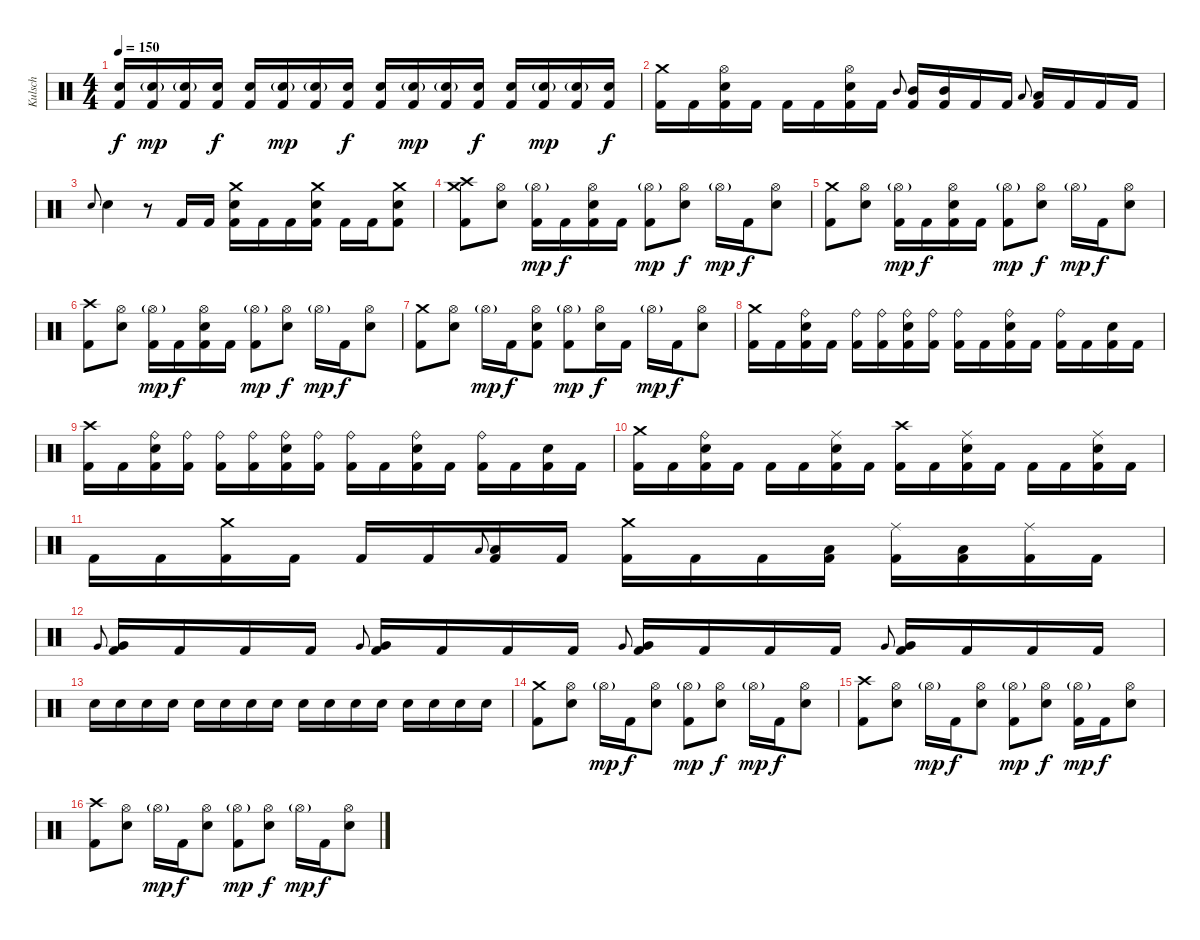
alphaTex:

\track ("Kulsch" "Kulsch") {instrument percussion}
\staff {score}
\articulation defaults
\ts (4 4)
\tempo 150
\clef neutral
\ks c
("Snare (hit) 2" "Kick (hit) 2").16{dy f} ("Snare (hit) 2"{g} "Kick (hit) 2").16{dy mp} ("Snare (hit) 2"{g} "Kick (hit) 2").16 ("Snare (hit) 2" "Kick (hit) 2").16{dy f} ("Snare (hit) 2" "Kick (hit) 2").16 ("Snare (hit) 2"{g} "Kick (hit) 2").16{dy mp} ("Snare (hit) 2"{g} "Kick (hit) 2").16 ("Snare (hit) 2" "Kick (hit) 2").16{dy f} ("Snare (hit) 2" "Kick (hit) 2").16 ("Snare (hit) 2"{g} "Kick (hit) 2").16{dy mp} ("Snare (hit) 2"{g} "Kick (hit) 2").16 ("Snare (hit) 2" "Kick (hit) 2").16{dy f} ("Snare (hit) 2" "Kick (hit) 2").16 ("Snare (hit) 2"{g} "Kick (hit) 2").16{dy mp} ("Snare (hit) 2"{g} "Kick (hit) 2").16 ("Snare (hit) 2" "Kick (hit) 2").16{dy f} |
("Crash medium (hit)" "Kick (hit) 2").16 "Kick (hit) 2".16 ("Hi-Hat (open)" "Snare (hit) 2" "Kick (hit) 2").16 "Kick (hit) 2".16 "Kick (hit) 2".16 "Kick (hit) 2".16 ("Hi-Hat (open)" "Snare (hit) 2" "Kick (hit) 2").16 "Kick (hit) 2".16 "Mid Tom (hit)".8{gr onbeat} ("Mid Tom (hit)" "Kick (hit) 2").16 ("Mid Tom (hit)" "Kick (hit) 2").16 "Kick (hit) 2".16 "Kick (hit) 2".16 "Low Tom (hit)".8{gr onbeat} ("Low Tom (hit)" "Kick (hit) 2").16 "Kick (hit) 2".16 "Kick (hit) 2".16 "Kick (hit) 2".16 |
"Snare (hit) 2".8{gr onbeat} "Snare (hit) 2".4 r.8 "Kick (hit) 2".16 "Kick (hit) 2".16 ("Crash medium (hit)" "Snare (hit) 2" "Kick (hit) 2").16 "Kick (hit) 2".16 "Kick (hit) 2".16 ("Crash medium (hit)" "Snare (hit) 2" "Kick (hit) 2").16 "Kick (hit) 2".16 "Kick (hit) 2".16 ("Crash medium (hit)" "Snare (hit) 2" "Kick (hit) 2").8 |
("Crash medium (hit)" "Crash high (hit)" "Kick (hit) 2").8 ("Hi-Hat (open)" "Snare (hit) 2").8 ("Hi-Hat (open)"{g} "Kick (hit) 2").16{dy mp} "Kick (hit) 2".16{dy f} ("Hi-Hat (open)" "Snare (hit) 2" "Kick (hit) 2").16 "Kick (hit) 2".16 ("Hi-Hat (open)"{g} "Kick (hit) 2").8{dy mp} ("Hi-Hat (open)" "Snare (hit) 2").8{dy f} "Hi-Hat (open)"{g}.16{dy mp} "Kick (hit) 2".16{dy f} ("Hi-Hat (open)" "Snare (hit) 2").8 |
("Crash medium (hit)" "Kick (hit) 2").8 ("Hi-Hat (open)" "Snare (hit) 2").8 ("Hi-Hat (open)"{g} "Kick (hit) 2").16{dy mp} "Kick (hit) 2".16{dy f} ("Hi-Hat (open)" "Snare (hit) 2" "Kick (hit) 2").16 "Kick (hit) 2".16 ("Hi-Hat (open)"{g} "Kick (hit) 2").8{dy mp} ("Hi-Hat (open)" "Snare (hit) 2").8{dy f} "Hi-Hat (open)"{g}.16{dy mp} "Kick (hit) 2".16{dy f} ("Hi-Hat (open)" "Snare (hit) 2").8 |
("Crash high (hit)" "Kick (hit) 2").8 ("Hi-Hat (open)" "Snare (hit) 2").8 ("Hi-Hat (open)"{g} "Kick (hit) 2").16{dy mp} "Kick (hit) 2".16{dy f} ("Hi-Hat (open)" "Snare (hit) 2" "Kick (hit) 2").16 "Kick (hit) 2".16 ("Hi-Hat (open)"{g} "Kick (hit) 2").8{dy mp} ("Hi-Hat (open)" "Snare (hit) 2").8{dy f} "Hi-Hat (open)"{g}.16{dy mp} "Kick (hit) 2".16{dy f} ("Hi-Hat (open)" "Snare (hit) 2").8 |
("Crash medium (hit)" "Kick (hit) 2").8 ("Hi-Hat (open)" "Snare (hit) 2").8 "Hi-Hat (open)"{g}.16{dy mp} "Kick (hit) 2".16{dy f} ("Hi-Hat (open)" "Snare (hit) 2" "Kick (hit) 2").8 ("Hi-Hat (open)"{g} "Kick (hit) 2").8{dy mp} ("Hi-Hat (open)" "Snare (hit) 2").16{dy f} "Kick (hit) 2".16 "Hi-Hat (open)"{g}.16{dy mp} "Kick (hit) 2".16{dy f} ("Hi-Hat (open)" "Snare (hit) 2").8 |
("Crash medium (hit)" "Kick (hit) 2").16 "Kick (hit) 2".16 ("Ride (bell)" "Snare (hit) 2" "Kick (hit) 2").16 "Kick (hit) 2".16 ("Ride (bell)" "Kick (hit) 2").16 ("Ride (bell)" "Kick (hit) 2").16 ("Ride (bell)" "Snare (hit) 2" "Kick (hit) 2").16 ("Ride (bell)" "Kick (hit) 2").16 ("Ride (bell)" "Kick (hit) 2").16 "Kick (hit) 2".16 ("Ride (bell)" "Snare (hit) 2" "Kick (hit) 2").16 "Kick (hit) 2".16 ("Ride (bell)" "Kick (hit) 2").16 "Kick (hit) 2".16 ("Snare (hit) 2" "Kick (hit) 2").16 "Kick (hit) 2".16 |
("Crash high (hit)" "Kick (hit) 2").16 "Kick (hit) 2".16 ("Ride (bell)" "Snare (hit) 2" "Kick (hit) 2").16 ("Ride (bell)" "Kick (hit) 2").16 ("Ride (bell)" "Kick (hit) 2").16 ("Ride (bell)" "Kick (hit) 2").16 ("Ride (bell)" "Snare (hit) 2" "Kick (hit) 2").16 ("Ride (bell)" "Kick (hit) 2").16 ("Ride (bell)" "Kick (hit) 2").16 "Kick (hit) 2".16 ("Ride (bell)" "Snare (hit) 2" "Kick (hit) 2").16 "Kick (hit) 2".16 ("Ride (bell)" "Kick (hit) 2").16 "Kick (hit) 2".16 ("Snare (hit) 2" "Kick (hit) 2").16 "Kick (hit) 2".16 |
("Crash medium (hit)" "Kick (hit) 2").16 "Kick (hit) 2".16 ("Ride (bell)" "Snare (hit) 2" "Kick (hit) 2").16 "Kick (hit) 2".16 "Kick (hit) 2".16 "Kick (hit) 2".16 ("Ride (middle)" "Snare (hit) 2" "Kick (hit) 2").16 "Kick (hit) 2".16 ("Crash high (hit)" "Kick (hit) 2").16 "Kick (hit) 2".16 ("Ride (middle)" "Snare (hit) 2" "Kick (hit) 2").16 "Kick (hit) 2".16 "Kick (hit) 2".16 "Kick (hit) 2".16 ("Ride (middle)" "Snare (hit) 2" "Kick (hit) 2").16 "Kick (hit) 2".16 |
"Kick (hit) 2".16 "Kick (hit) 2".16 ("Crash medium (hit)" "Kick (hit) 2").16 "Kick (hit) 2".16 "Kick (hit) 2".16 "Kick (hit) 2".16 "Low Tom (hit)".8{gr onbeat} ("Low Tom (hit)" "Kick (hit) 2").16 "Kick (hit) 2".16 ("Crash medium (hit)" "Kick (hit) 2").16 "Kick (hit) 2".16 "Kick (hit) 2".16 ("Low Tom (hit)" "Kick (hit) 2").16 ("Ride (middle)" "Kick (hit) 2").16 ("Low Tom (hit)" "Kick (hit) 2").16 ("Ride (middle)" "Kick (hit) 2").16 "Kick (hit) 2".16 |
"Very Low Tom (hit)".8{gr onbeat} ("Very Low Tom (hit)" "Kick (hit) 2").16 "Kick (hit) 2".16 "Kick (hit) 2".16 "Kick (hit) 2".16 "Very Low Tom (hit)".8{gr onbeat} ("Very Low Tom (hit)" "Kick (hit) 2").16 "Kick (hit) 2".16 "Kick (hit) 2".16 "Kick (hit) 2".16 "Very Low Tom (hit)".8{gr onbeat} ("Very Low Tom (hit)" "Kick (hit) 2").16 "Kick (hit) 2".16 "Kick (hit) 2".16 "Kick (hit) 2".16 "Very Low Tom (hit)".8{gr onbeat} ("Very Low Tom (hit)" "Kick (hit) 2").16 "Kick (hit) 2".16 "Kick (hit) 2".16 "Kick (hit) 2".16 |
"Snare (hit) 2".16 "Snare (hit) 2".16 "Snare (hit) 2".16 "Snare (hit) 2".16 "Snare (hit) 2".16 "Snare (hit) 2".16 "Snare (hit) 2".16 "Snare (hit) 2".16 "Snare (hit) 2".16 "Snare (hit) 2".16 "Snare (hit) 2".16 "Snare (hit) 2".16 "Snare (hit) 2".16 "Snare (hit) 2".16 "Snare (hit) 2".16 "Snare (hit) 2".16 |
("Crash medium (hit)" "Kick (hit) 2").8 ("Hi-Hat (open)" "Snare (hit) 2").8 "Hi-Hat (open)"{g}.16{dy mp} "Kick (hit) 2".16{dy f} ("Hi-Hat (open)" "Snare (hit) 2").8 ("Hi-Hat (open)"{g} "Kick (hit) 2").8{dy mp} ("Hi-Hat (open)" "Snare (hit) 2").8{dy f} "Hi-Hat (open)"{g}.16{dy mp} "Kick (hit) 2".16{dy f} ("Hi-Hat (open)" "Snare (hit) 2").8 |
("Crash high (hit)" "Kick (hit) 2").8 ("Hi-Hat (open)" "Snare (hit) 2").8 "Hi-Hat (open)"{g}.16{dy mp} "Kick (hit) 2".16{dy f} ("Hi-Hat (open)" "Snare (hit) 2").8 ("Hi-Hat (open)"{g} "Kick (hit) 2").8{dy mp} ("Hi-Hat (open)" "Snare (hit) 2").8{dy f} ("Hi-Hat (open)"{g} "Kick (hit) 2").16{dy mp} "Kick (hit) 2".16{dy f} ("Hi-Hat (open)" "Snare (hit) 2").8 |
("Crash high (hit)" "Kick (hit) 2").8 ("Hi-Hat (open)" "Snare (hit) 2").8 "Hi-Hat (open)"{g}.16{dy mp} "Kick (hit) 2".16{dy f} ("Hi-Hat (open)" "Snare (hit) 2").8 ("Hi-Hat (open)"{g} "Kick (hit) 2").8{dy mp} ("Hi-Hat (open)" "Snare (hit) 2").8{dy f} "Hi-Hat (open)"{g}.16{dy mp} "Kick (hit) 2".16{dy f} ("Hi-Hat (open)" "Snare (hit) 2").8
